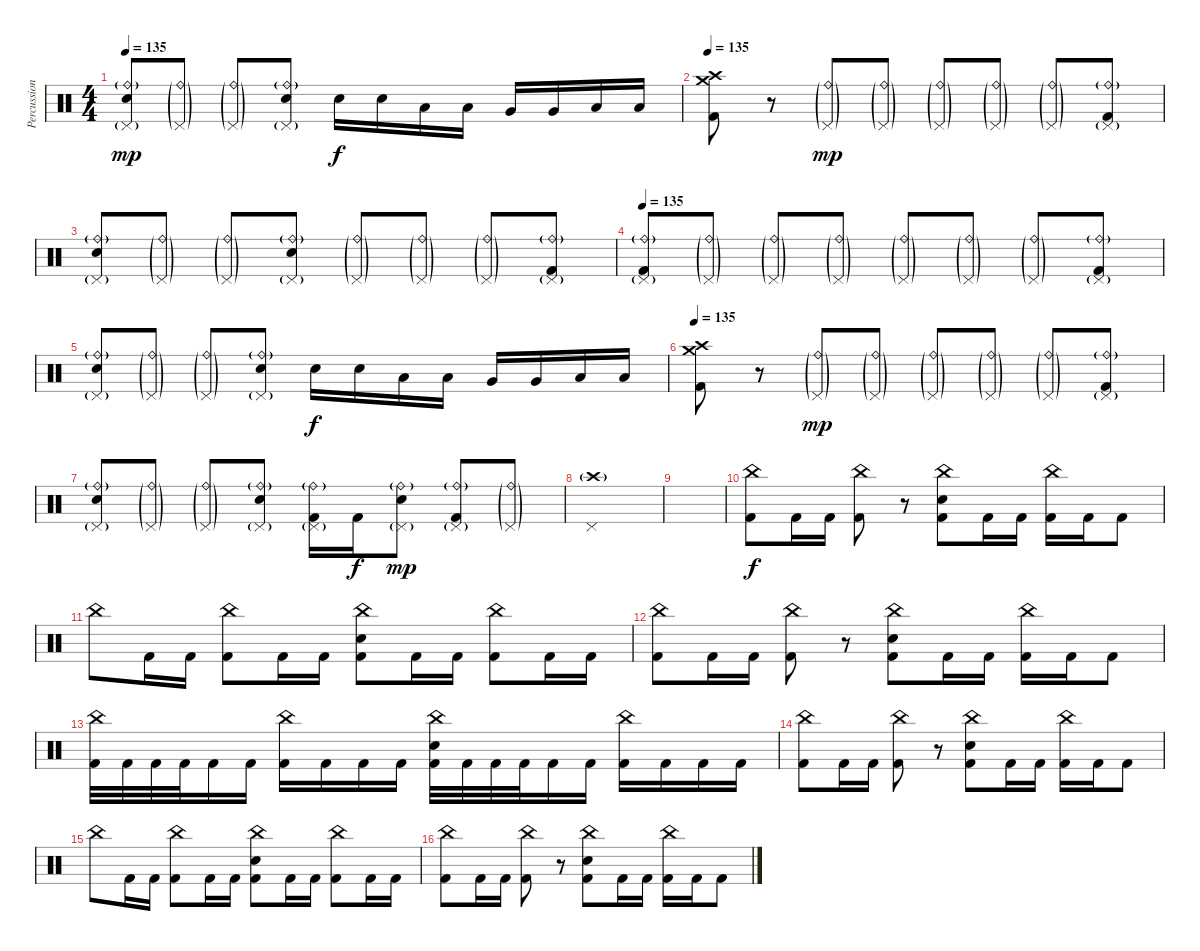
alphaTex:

\track ("Percussions" "Percussion") {instrument percussion}
\staff {score}
\articulation defaults
\ts (4 4)
\tempo 135
\clef neutral
\ks c
("Ride (bell)"{g} "Pedal Hi-Hat (hit)"{g} "Electric Snare (hit)").8{dy mp} ("Ride (bell)"{g} "Pedal Hi-Hat (hit)"{g}).8 ("Ride (bell)"{g} "Pedal Hi-Hat (hit)"{g}).8 ("Ride (bell)"{g} "Pedal Hi-Hat (hit)"{g} "Electric Snare (hit)").8 "Electric Snare (hit)".16{dy f} "Electric Snare (hit)".16 "Low Tom (hit)".16 "Low Tom (hit)".16 "Very Low Tom (hit)".16 "Very Low Tom (hit)".16 "Low Floor Tom (hit)".16 "Low Floor Tom (hit)".16 |
\tempo 135
("Crash medium (hit)" "Crash high (hit)" "Kick (hit) 2").8 r.8 ("Ride (bell)"{g} "Pedal Hi-Hat (hit)"{g}).8{dy mp} ("Ride (bell)"{g} "Pedal Hi-Hat (hit)"{g}).8 ("Ride (bell)"{g} "Pedal Hi-Hat (hit)"{g}).8 ("Ride (bell)"{g} "Pedal Hi-Hat (hit)"{g}).8 ("Ride (bell)"{g} "Pedal Hi-Hat (hit)"{g}).8 ("Ride (bell)"{g} "Pedal Hi-Hat (hit)"{g} "Kick (hit) 2").8 |
("Ride (bell)"{g} "Pedal Hi-Hat (hit)"{g} "Electric Snare (hit)").8 ("Ride (bell)"{g} "Pedal Hi-Hat (hit)"{g}).8 ("Ride (bell)"{g} "Pedal Hi-Hat (hit)"{g}).8 ("Ride (bell)"{g} "Pedal Hi-Hat (hit)"{g} "Electric Snare (hit)").8 ("Ride (bell)"{g} "Pedal Hi-Hat (hit)"{g}).8 ("Ride (bell)"{g} "Pedal Hi-Hat (hit)"{g}).8 ("Ride (bell)"{g} "Pedal Hi-Hat (hit)"{g}).8 ("Ride (bell)"{g} "Pedal Hi-Hat (hit)"{g} "Kick (hit) 2").8 |
\tempo 135
("Ride (bell)"{g} "Pedal Hi-Hat (hit)"{g} "Kick (hit) 2").8 ("Ride (bell)"{g} "Pedal Hi-Hat (hit)"{g}).8 ("Ride (bell)"{g} "Pedal Hi-Hat (hit)"{g}).8 ("Ride (bell)"{g} "Pedal Hi-Hat (hit)"{g}).8 ("Ride (bell)"{g} "Pedal Hi-Hat (hit)"{g}).8 ("Ride (bell)"{g} "Pedal Hi-Hat (hit)"{g}).8 ("Ride (bell)"{g} "Pedal Hi-Hat (hit)"{g}).8 ("Ride (bell)"{g} "Pedal Hi-Hat (hit)"{g} "Kick (hit) 2").8 |
("Ride (bell)"{g} "Pedal Hi-Hat (hit)"{g} "Electric Snare (hit)").8 ("Ride (bell)"{g} "Pedal Hi-Hat (hit)"{g}).8 ("Ride (bell)"{g} "Pedal Hi-Hat (hit)"{g}).8 ("Ride (bell)"{g} "Pedal Hi-Hat (hit)"{g} "Electric Snare (hit)").8 "Electric Snare (hit)".16{dy f} "Electric Snare (hit)".16 "Low Tom (hit)".16 "Low Tom (hit)".16 "Very Low Tom (hit)".16 "Very Low Tom (hit)".16 "Low Floor Tom (hit)".16 "Low Floor Tom (hit)".16 |
\tempo 135
("Crash medium (hit)" "Crash high (hit)" "Kick (hit) 2").8 r.8 ("Ride (bell)"{g} "Pedal Hi-Hat (hit)"{g}).8{dy mp} ("Ride (bell)"{g} "Pedal Hi-Hat (hit)"{g}).8 ("Ride (bell)"{g} "Pedal Hi-Hat (hit)"{g}).8 ("Ride (bell)"{g} "Pedal Hi-Hat (hit)"{g}).8 ("Ride (bell)"{g} "Pedal Hi-Hat (hit)"{g}).8 ("Ride (bell)"{g} "Pedal Hi-Hat (hit)"{g} "Kick (hit) 2").8 |
("Ride (bell)"{g} "Pedal Hi-Hat (hit)"{g} "Electric Snare (hit)").8 ("Ride (bell)"{g} "Pedal Hi-Hat (hit)"{g}).8 ("Ride (bell)"{g} "Pedal Hi-Hat (hit)"{g}).8 ("Ride (bell)"{g} "Pedal Hi-Hat (hit)"{g} "Electric Snare (hit)").8 ("Ride (bell)"{g} "Pedal Hi-Hat (hit)"{g} "Kick (hit) 2").16 "Kick (hit) 2".16{dy f} ("Ride (bell)"{g} "Pedal Hi-Hat (hit)"{g} "Electric Snare (hit)").8{dy mp} ("Ride (bell)"{g} "Pedal Hi-Hat (hit)"{g} "Kick (hit) 2").8 ("Ride (bell)"{g} "Pedal Hi-Hat (hit)"{g}).8 |
("Pedal Hi-Hat (hit)" "Crash high (hit)"{g}).1 |
|
("China (hit)" "Kick (hit) 2").8{dy f} "Kick (hit) 2".16 "Kick (hit) 2".16 ("China (hit)" "Kick (hit) 2").8 r.8 ("China (hit)" "Electric Snare (hit)" "Kick (hit) 2").8 "Kick (hit) 2".16 "Kick (hit) 2".16 ("China (hit)" "Kick (hit) 2").16 "Kick (hit) 2".16 "Kick (hit) 2".8 |
"China (hit)".8 "Kick (hit) 2".16 "Kick (hit) 2".16 ("China (hit)" "Kick (hit) 2").8 "Kick (hit) 2".16 "Kick (hit) 2".16 ("China (hit)" "Electric Snare (hit)" "Kick (hit) 2").8 "Kick (hit) 2".16 "Kick (hit) 2".16 ("China (hit)" "Kick (hit) 2").8 "Kick (hit) 2".16 "Kick (hit) 2".16 |
("China (hit)" "Kick (hit) 2").8 "Kick (hit) 2".16 "Kick (hit) 2".16 ("China (hit)" "Kick (hit) 2").8 r.8 ("China (hit)" "Electric Snare (hit)" "Kick (hit) 2").8 "Kick (hit) 2".16 "Kick (hit) 2".16 ("China (hit)" "Kick (hit) 2").16 "Kick (hit) 2".16 "Kick (hit) 2".8 |
("China (hit)" "Kick (hit) 2").32 "Kick (hit) 2".32 "Kick (hit) 2".32 "Kick (hit) 2".32 "Kick (hit) 2".16 "Kick (hit) 2".16 ("China (hit)" "Kick (hit) 2").16 "Kick (hit) 2".16 "Kick (hit) 2".16 "Kick (hit) 2".16 ("China (hit)" "Electric Snare (hit)" "Kick (hit) 2").32 "Kick (hit) 2".32 "Kick (hit) 2".32 "Kick (hit) 2".32 "Kick (hit) 2".16 "Kick (hit) 2".16 ("China (hit)" "Kick (hit) 2").16 "Kick (hit) 2".16 "Kick (hit) 2".16 "Kick (hit) 2".16 |
("China (hit)" "Kick (hit) 2").8 "Kick (hit) 2".16 "Kick (hit) 2".16 ("China (hit)" "Kick (hit) 2").8 r.8 ("China (hit)" "Electric Snare (hit)" "Kick (hit) 2").8 "Kick (hit) 2".16 "Kick (hit) 2".16 ("China (hit)" "Kick (hit) 2").16 "Kick (hit) 2".16 "Kick (hit) 2".8 |
"China (hit)".8 "Kick (hit) 2".16 "Kick (hit) 2".16 ("China (hit)" "Kick (hit) 2").8 "Kick (hit) 2".16 "Kick (hit) 2".16 ("China (hit)" "Electric Snare (hit)" "Kick (hit) 2").8 "Kick (hit) 2".16 "Kick (hit) 2".16 ("China (hit)" "Kick (hit) 2").8 "Kick (hit) 2".16 "Kick (hit) 2".16 |
("China (hit)" "Kick (hit) 2").8 "Kick (hit) 2".16 "Kick (hit) 2".16 ("China (hit)" "Kick (hit) 2").8 r.8 ("China (hit)" "Electric Snare (hit)" "Kick (hit) 2").8 "Kick (hit) 2".16 "Kick (hit) 2".16 ("China (hit)" "Kick (hit) 2").16 "Kick (hit) 2".16 "Kick (hit) 2".8
